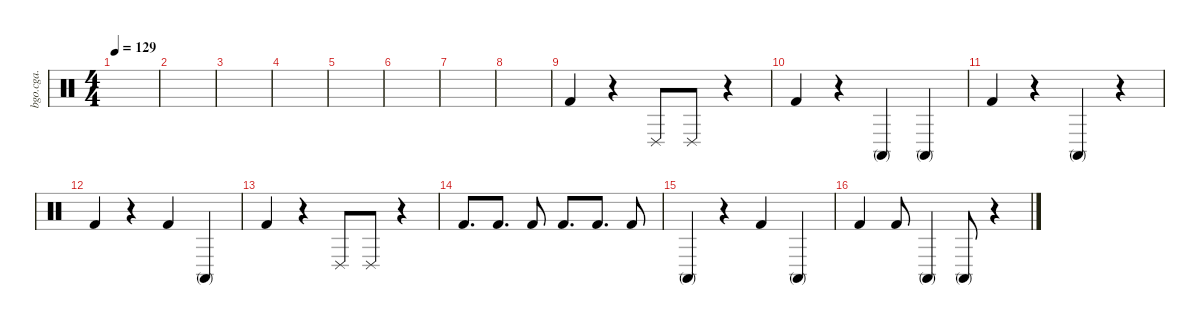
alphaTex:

\defaultSystemsLayout 4
\hideDynamics
\bracketExtendMode nobrackets
\otherSystemsTrackNameOrientation horizontal
\track ("Alex's percussion" "bgo.cga.") {instrument percussion}
\staff {score}
\articulation defaults
\ts (4 4)
\tempo 129
\clef neutral
\ks c
|
|
|
|
|
|
|
|
"Kick (hit) 2".4 r.4 "Conga low (slap)".8 "Conga low (slap)".8 r.4 |
"Kick (hit) 2".4 r.4 "Conga high (mute)".4 "Conga high (mute)".4 |
"Kick (hit) 2".4 r.4 "Conga high (mute)".4 r.4 |
"Kick (hit) 2".4 r.4 "Kick (hit) 2".4 "Conga high (mute)".4 |
"Kick (hit) 2".4 r.4 "Conga low (slap)".8 "Conga low (slap)".8 r.4 |
"Kick (hit) 2".8{d} "Kick (hit) 2".8{d} "Kick (hit) 2".8 "Kick (hit) 2".8{d} "Kick (hit) 2".8{d} "Kick (hit) 2".8 |
"Conga high (mute)".4 r.4 "Kick (hit) 2".4 "Conga high (mute)".4 |
"Kick (hit) 2".4 "Kick (hit) 2".8 "Conga high (mute)".4{dy f} "Conga high (mute)".8 r.4
